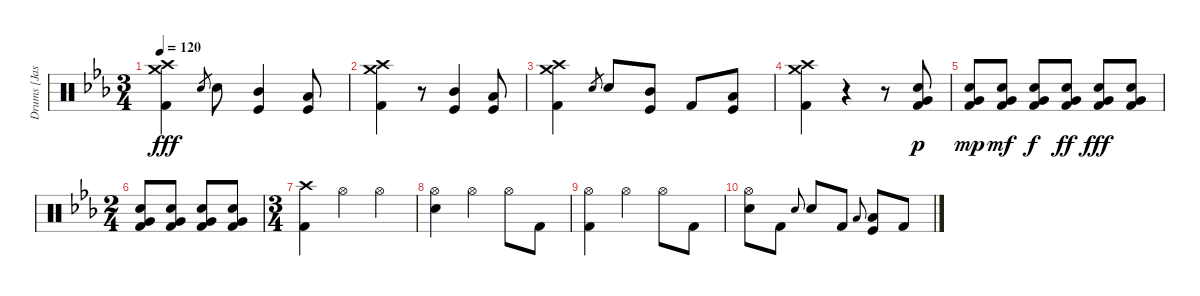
\track ("Drums [Jason Rullo]" "Drums [Jas") {instrument percussion}
\staff {score}
\articulation defaults
\ts (3 4)
\tempo 120
\clef neutral
\ks eb
("Crash medium (hit)" "Crash high (hit)" "Kick (hit) 2").4{dy fff} "Electric Snare (hit)".8{gr} "Electric Snare (hit)".8 ("Mid Tom (hit)" "Kick (hit)").4 ("Low Tom (hit)" "Kick (hit)").8 |
("Crash medium (hit)" "Crash high (hit)" "Kick (hit) 2").4 r.8 ("Mid Tom (hit)" "Kick (hit)").4 ("Low Tom (hit)" "Kick (hit)").8 |
("Crash medium (hit)" "Crash high (hit)" "Kick (hit) 2").4 "Electric Snare (hit)".8{gr} "Electric Snare (hit)".8 ("Mid Tom (hit)" "Kick (hit)").8 "Kick (hit) 2".8 ("Low Tom (hit)" "Kick (hit)").8 |
("Crash medium (hit)" "Crash high (hit)" "Kick (hit) 2").4 r.4 r.8 ("Very Low Tom (hit)" "Electric Snare (hit)" "Kick (hit) 2").8{dy p} |
("Very Low Tom (hit)" "Electric Snare (hit)" "Kick (hit) 2").8{dy mp} ("Very Low Tom (hit)" "Electric Snare (hit)" "Kick (hit) 2").8{dy mf} ("Very Low Tom (hit)" "Electric Snare (hit)" "Kick (hit) 2").8{dy f} ("Very Low Tom (hit)" "Electric Snare (hit)" "Kick (hit) 2").8{dy ff} ("Very Low Tom (hit)" "Electric Snare (hit)" "Kick (hit) 2").8{dy fff} ("Very Low Tom (hit)" "Electric Snare (hit)" "Kick (hit) 2").8 |
\ts (2 4)
("Very Low Tom (hit)" "Electric Snare (hit)" "Kick (hit) 2").8 ("Very Low Tom (hit)" "Electric Snare (hit)" "Kick (hit) 2").8 ("Very Low Tom (hit)" "Electric Snare (hit)" "Kick (hit) 2").8 ("Very Low Tom (hit)" "Electric Snare (hit)" "Kick (hit) 2").8 |
\ts (3 4)
("Crash high (hit)" "Kick (hit) 2").4 "Hi-Hat (open)".4 "Hi-Hat (open)".4 |
("Hi-Hat (open)" "Electric Snare (hit)").4 "Hi-Hat (open)".4 "Hi-Hat (open)".8 "Kick (hit) 2".8 |
("Hi-Hat (open)" "Kick (hit) 2").4 "Hi-Hat (open)".4 "Hi-Hat (open)".8 "Kick (hit) 2".8 |
("Hi-Hat (open)" "Electric Snare (hit)").8 "Kick (hit) 2".8 "Electric Snare (hit)".8{gr onbeat} "Electric Snare (hit)".8 "Kick (hit) 2".8 "Low Tom (hit)".8{gr onbeat} ("Low Tom (hit)" "Kick (hit)").8 "Kick (hit) 2".8
